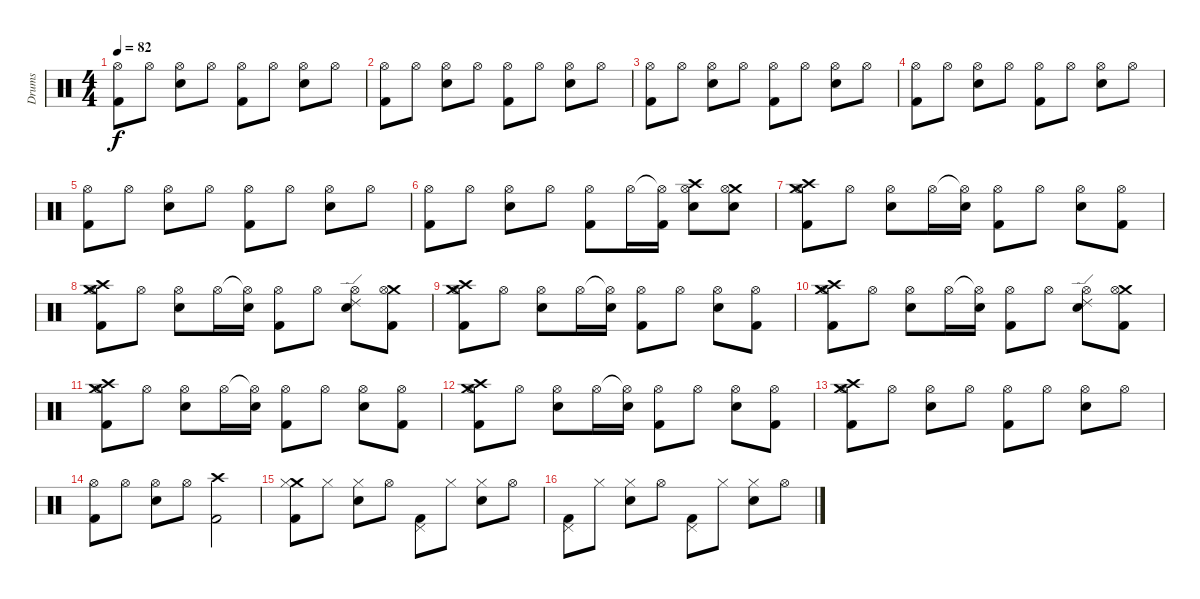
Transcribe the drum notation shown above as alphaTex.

\track ("Drums" "Drums") {instrument percussion}
\staff {score}
\articulation defaults
\ts (4 4)
\tempo 82
\clef neutral
\ks c
("Hi-Hat (open)" "Kick (hit) 2").8{dy f} "Hi-Hat (open)".8 ("Hi-Hat (open)" "Snare (hit) 2").8 "Hi-Hat (open)".8 ("Hi-Hat (open)" "Kick (hit) 2").8 "Hi-Hat (open)".8 ("Hi-Hat (open)" "Snare (hit) 2").8 "Hi-Hat (open)".8 |
("Hi-Hat (open)" "Kick (hit) 2").8 "Hi-Hat (open)".8 ("Hi-Hat (open)" "Snare (hit) 2").8 "Hi-Hat (open)".8 ("Hi-Hat (open)" "Kick (hit) 2").8 "Hi-Hat (open)".8 ("Hi-Hat (open)" "Snare (hit) 2").8 "Hi-Hat (open)".8 |
("Hi-Hat (open)" "Kick (hit) 2").8 "Hi-Hat (open)".8 ("Hi-Hat (open)" "Snare (hit) 2").8 "Hi-Hat (open)".8 ("Hi-Hat (open)" "Kick (hit) 2").8 "Hi-Hat (open)".8 ("Hi-Hat (open)" "Snare (hit) 2").8 "Hi-Hat (open)".8 |
("Hi-Hat (open)" "Kick (hit) 2").8 "Hi-Hat (open)".8 ("Hi-Hat (open)" "Snare (hit) 2").8 "Hi-Hat (open)".8 ("Hi-Hat (open)" "Kick (hit) 2").8 "Hi-Hat (open)".8 ("Hi-Hat (open)" "Snare (hit) 2").8 "Hi-Hat (open)".8 |
("Hi-Hat (open)" "Kick (hit) 2").8 "Hi-Hat (open)".8 ("Hi-Hat (open)" "Snare (hit) 2").8 "Hi-Hat (open)".8 ("Hi-Hat (open)" "Kick (hit) 2").8 "Hi-Hat (open)".8 ("Hi-Hat (open)" "Snare (hit) 2").8 "Hi-Hat (open)".8 |
("Hi-Hat (open)" "Kick (hit) 2").8 "Hi-Hat (open)".8 ("Hi-Hat (open)" "Snare (hit) 2").8 "Hi-Hat (open)".8 ("Hi-Hat (open)" "Kick (hit) 2").8 "Hi-Hat (open)".16 ("Hi-Hat (open)"{t} "Kick (hit) 2").16 ("Crash high (hit)" "Hi-Hat (open)" "Snare (hit) 2").8 ("Crash medium (hit)" "Hi-Hat (open)" "Snare (hit) 2").8 |
("Crash medium (hit)" "Crash high (hit)" "Hi-Hat (open)" "Kick (hit) 2").8 "Hi-Hat (open)".8 ("Hi-Hat (open)" "Snare (hit) 2").8 "Hi-Hat (open)".16 ("Hi-Hat (open)"{t} "Snare (hit) 2").16 ("Hi-Hat (open)" "Kick (hit) 2").8 "Hi-Hat (open)".8 ("Hi-Hat (open)" "Snare (hit) 2").8 ("Hi-Hat (open)" "Kick (hit) 2").8 |
("Crash medium (hit)" "Crash high (hit)" "Hi-Hat (open)" "Kick (hit) 2").8 "Hi-Hat (open)".8 ("Hi-Hat (open)" "Snare (hit) 2").8 "Hi-Hat (open)".16 ("Hi-Hat (open)"{t} "Snare (hit) 2").16 ("Hi-Hat (open)" "Kick (hit) 2").8 "Hi-Hat (open)".8 ("Ride (edge) 2" "Hi-Hat (open)" "Snare (hit) 2").8 ("Crash medium (hit)" "Hi-Hat (open)" "Kick (hit) 2").8 |
("Crash medium (hit)" "Crash high (hit)" "Hi-Hat (open)" "Kick (hit) 2").8 "Hi-Hat (open)".8 ("Hi-Hat (open)" "Snare (hit) 2").8 "Hi-Hat (open)".16 ("Hi-Hat (open)"{t} "Snare (hit) 2").16 ("Hi-Hat (open)" "Kick (hit) 2").8 "Hi-Hat (open)".8 ("Hi-Hat (open)" "Snare (hit) 2").8 ("Hi-Hat (open)" "Kick (hit) 2").8 |
("Crash medium (hit)" "Crash high (hit)" "Hi-Hat (open)" "Kick (hit) 2").8 "Hi-Hat (open)".8 ("Hi-Hat (open)" "Snare (hit) 2").8 "Hi-Hat (open)".16 ("Hi-Hat (open)"{t} "Snare (hit) 2").16 ("Hi-Hat (open)" "Kick (hit) 2").8 "Hi-Hat (open)".8 ("Ride (edge) 2" "Hi-Hat (open)" "Snare (hit) 2").8 ("Crash medium (hit)" "Hi-Hat (open)" "Kick (hit) 2").8 |
("Crash medium (hit)" "Crash high (hit)" "Hi-Hat (open)" "Kick (hit) 2").8 "Hi-Hat (open)".8 ("Hi-Hat (open)" "Snare (hit) 2").8 "Hi-Hat (open)".16 ("Hi-Hat (open)"{t} "Snare (hit) 2").16 ("Hi-Hat (open)" "Kick (hit) 2").8 "Hi-Hat (open)".8 ("Hi-Hat (open)" "Snare (hit) 2").8 ("Hi-Hat (open)" "Kick (hit) 2").8 |
("Crash medium (hit)" "Crash high (hit)" "Hi-Hat (open)" "Kick (hit) 2").8 "Hi-Hat (open)".8 ("Hi-Hat (open)" "Snare (hit) 2").8 "Hi-Hat (open)".16 ("Hi-Hat (open)"{t} "Snare (hit) 2").16 ("Hi-Hat (open)" "Kick (hit) 2").8 "Hi-Hat (open)".8 ("Hi-Hat (open)" "Snare (hit) 2").8 ("Hi-Hat (open)" "Kick (hit) 2").8 |
("Crash medium (hit)" "Crash high (hit)" "Hi-Hat (open)" "Kick (hit) 2").8 "Hi-Hat (open)".8 ("Hi-Hat (open)" "Snare (hit) 2").8 "Hi-Hat (open)".8 ("Hi-Hat (open)" "Kick (hit) 2").8 "Hi-Hat (open)".8 ("Hi-Hat (open)" "Snare (hit) 2").8 "Hi-Hat (open)".8 |
("Hi-Hat (open)" "Kick (hit) 2").8 "Hi-Hat (open)".8 ("Hi-Hat (open)" "Snare (hit) 2").8 "Hi-Hat (open)".8 ("Kick (hit) 2" "Crash high (hit)").2 |
("Crash medium (hit)" "Kick (hit) 2" "Hi-Hat (closed)").8 "Hi-Hat (closed)".8 ("Snare (hit) 2" "Hi-Hat (closed)").8 "Hi-Hat (open)".8 ("Pedal Hi-Hat (hit)" "Kick (hit) 2").8 "Hi-Hat (closed)".8 ("Snare (hit) 2" "Hi-Hat (closed)").8 "Hi-Hat (open)".8 |
("Pedal Hi-Hat (hit)" "Kick (hit) 2").8 "Hi-Hat (closed)".8 ("Snare (hit) 2" "Hi-Hat (closed)").8 "Hi-Hat (open)".8 ("Pedal Hi-Hat (hit)" "Kick (hit) 2").8 "Hi-Hat (closed)".8 ("Snare (hit) 2" "Hi-Hat (closed)").8 "Hi-Hat (open)".8
